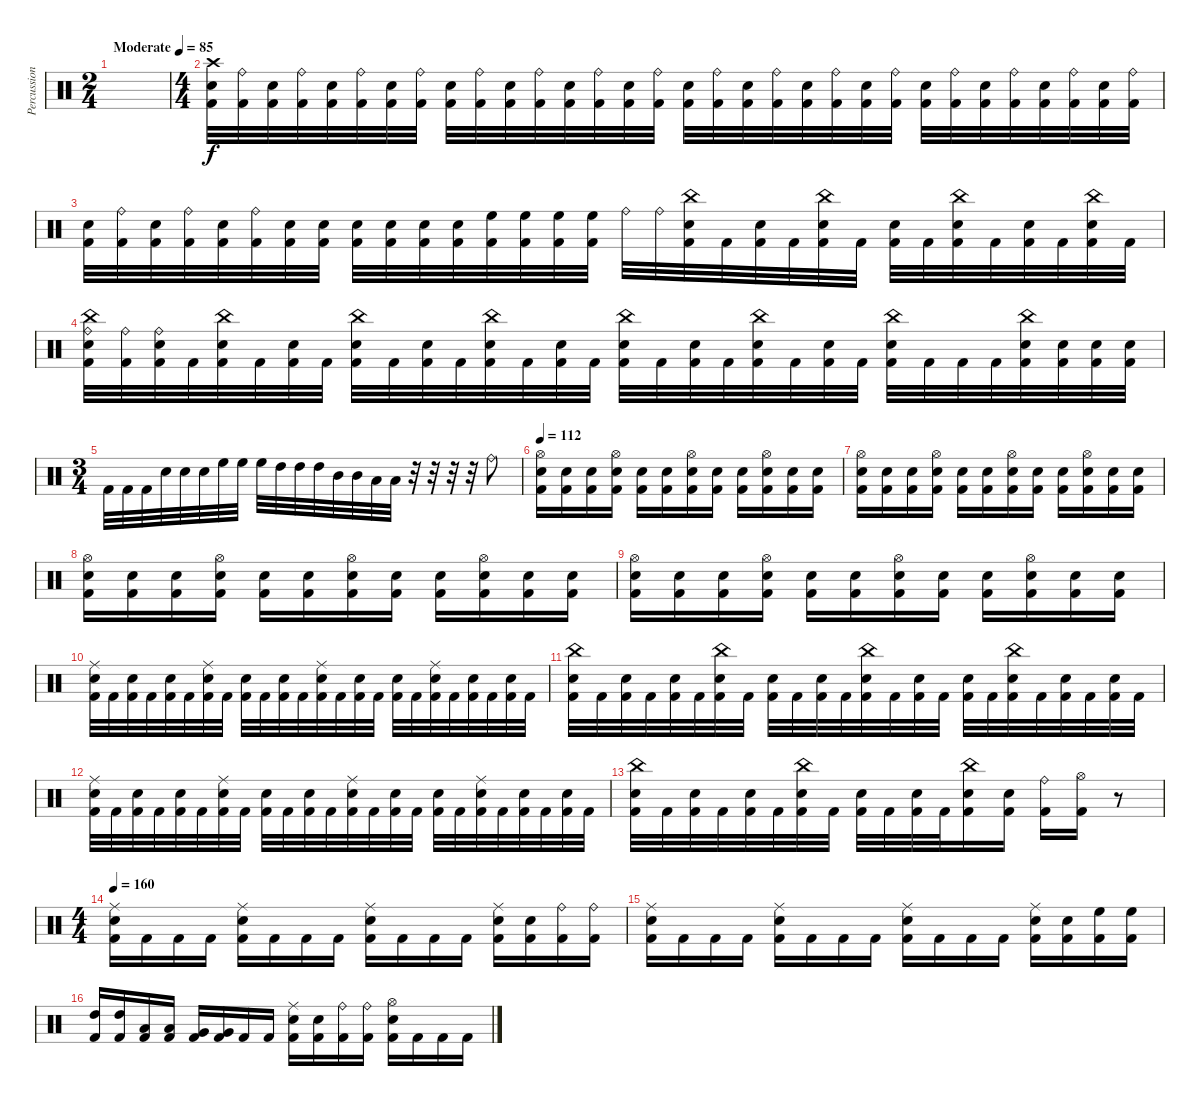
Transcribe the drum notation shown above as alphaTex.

\track ("Percussion" "Percussion") {instrument percussion}
\staff {score}
\articulation defaults
\ts (2 4)
\tempo (85 "Moderate")
\clef neutral
\ks c
|
\ts (4 4)
("Crash high (hit)" "Snare (hit) 2" "Kick (hit) 2").32 ("Ride (bell)" "Kick (hit) 2").32 ("Snare (hit) 2" "Kick (hit) 2").32 ("Ride (bell)" "Kick (hit) 2").32 ("Snare (hit) 2" "Kick (hit) 2").32 ("Ride (bell)" "Kick (hit) 2").32 ("Snare (hit) 2" "Kick (hit) 2").32 ("Ride (bell)" "Kick (hit) 2").32 ("Snare (hit) 2" "Kick (hit) 2").32 ("Ride (bell)" "Kick (hit) 2").32 ("Snare (hit) 2" "Kick (hit) 2").32 ("Ride (bell)" "Kick (hit) 2").32 ("Snare (hit) 2" "Kick (hit) 2").32 ("Ride (bell)" "Kick (hit) 2").32 ("Snare (hit) 2" "Kick (hit) 2").32 ("Ride (bell)" "Kick (hit) 2").32 ("Snare (hit) 2" "Kick (hit) 2").32 ("Ride (bell)" "Kick (hit) 2").32 ("Snare (hit) 2" "Kick (hit) 2").32 ("Ride (bell)" "Kick (hit) 2").32 ("Snare (hit) 2" "Kick (hit) 2").32 ("Ride (bell)" "Kick (hit) 2").32 ("Snare (hit) 2" "Kick (hit) 2").32 ("Ride (bell)" "Kick (hit) 2").32 ("Snare (hit) 2" "Kick (hit) 2").32 ("Ride (bell)" "Kick (hit) 2").32 ("Snare (hit) 2" "Kick (hit) 2").32 ("Ride (bell)" "Kick (hit) 2").32 ("Snare (hit) 2" "Kick (hit) 2").32 ("Ride (bell)" "Kick (hit) 2").32 ("Snare (hit) 2" "Kick (hit) 2").32 ("Ride (bell)" "Kick (hit) 2").32 |
("Snare (hit) 2" "Kick (hit) 2").32 ("Ride (bell)" "Kick (hit) 2").32 ("Snare (hit) 2" "Kick (hit) 2").32 ("Ride (bell)" "Kick (hit) 2").32 ("Snare (hit) 2" "Kick (hit) 2").32 ("Ride (bell)" "Kick (hit) 2").32 ("Snare (hit) 2" "Kick (hit) 2").32 ("Snare (hit) 2" "Kick (hit) 2").32 ("Snare (hit) 2" "Kick (hit) 2").32 ("Snare (hit) 2" "Kick (hit) 2").32 ("Snare (hit) 2" "Kick (hit) 2").32 ("Snare (hit) 2" "Kick (hit) 2").32 ("High Floor Tom (hit)" "Kick (hit) 2").32 ("High Floor Tom (hit)" "Kick (hit) 2").32 ("High Floor Tom (hit)" "Kick (hit) 2").32 ("High Floor Tom (hit)" "Kick (hit) 2").32 "Ride (bell)".32 "Ride (bell)".32 ("China (hit)" "Snare (hit) 2" "Kick (hit) 2").32 "Kick (hit) 2".32 ("Snare (hit) 2" "Kick (hit) 2").32 "Kick (hit) 2".32 ("China (hit)" "Snare (hit) 2" "Kick (hit) 2").32 "Kick (hit) 2".32 ("Snare (hit) 2" "Kick (hit) 2").32 "Kick (hit) 2".32 ("China (hit)" "Snare (hit) 2" "Kick (hit) 2").32 "Kick (hit) 2".32 ("Snare (hit) 2" "Kick (hit) 2").32 "Kick (hit) 2".32 ("China (hit)" "Snare (hit) 2" "Kick (hit) 2").32 "Kick (hit) 2".32 |
("China (hit)" "Ride (bell)" "Snare (hit) 2" "Kick (hit) 2").32 ("Ride (bell)" "Kick (hit) 2").32 ("Ride (bell)" "Snare (hit) 2" "Kick (hit) 2").32 "Kick (hit) 2".32 ("China (hit)" "Snare (hit) 2" "Kick (hit) 2").32 "Kick (hit) 2".32 ("Snare (hit) 2" "Kick (hit) 2").32 "Kick (hit) 2".32 ("China (hit)" "Snare (hit) 2" "Kick (hit) 2").32 "Kick (hit) 2".32 ("Snare (hit) 2" "Kick (hit) 2").32 "Kick (hit) 2".32 ("China (hit)" "Snare (hit) 2" "Kick (hit) 2").32 "Kick (hit) 2".32 ("Snare (hit) 2" "Kick (hit) 2").32 "Kick (hit) 2".32 ("China (hit)" "Snare (hit) 2" "Kick (hit) 2").32 "Kick (hit) 2".32 ("Snare (hit) 2" "Kick (hit) 2").32 "Kick (hit) 2".32 ("China (hit)" "Snare (hit) 2" "Kick (hit) 2").32 "Kick (hit) 2".32 ("Snare (hit) 2" "Kick (hit) 2").32 "Kick (hit) 2".32 ("China (hit)" "Snare (hit) 2" "Kick (hit) 2").32 "Kick (hit) 2".32 "Kick (hit) 2".32 "Kick (hit) 2".32 ("China (hit)" "Snare (hit) 2" "Kick (hit) 2").32 ("Snare (hit) 2" "Kick (hit) 2").32 ("Snare (hit) 2" "Kick (hit) 2").32 ("Snare (hit) 2" "Kick (hit) 2").32 |
\ts (3 4)
"Kick (hit) 2".32 "Kick (hit) 2".32 "Kick (hit) 2".32 "Snare (hit) 2".32 "Snare (hit) 2".32 "Snare (hit) 2".32 "High Floor Tom (hit)".32 "High Floor Tom (hit)".32 "High Floor Tom (hit)".32 "High Tom (hit)".32 "High Tom (hit)".32 "High Tom (hit)".32 "Mid Tom (hit)".32 "Mid Tom (hit)".32 "Low Tom (hit)".32 "Low Tom (hit)".32 r.32 r.32 r.32 r.32 "Ride (bell)".8 |
\tempo 112
("Hi-Hat (open)" "Snare (hit) 2" "Kick (hit) 2").16 ("Snare (hit) 2" "Kick (hit) 2").16 ("Snare (hit) 2" "Kick (hit) 2").16 ("Hi-Hat (open)" "Snare (hit) 2" "Kick (hit) 2").16 ("Snare (hit) 2" "Kick (hit) 2").16 ("Snare (hit) 2" "Kick (hit) 2").16 ("Hi-Hat (open)" "Snare (hit) 2" "Kick (hit) 2").16 ("Snare (hit) 2" "Kick (hit) 2").16 ("Snare (hit) 2" "Kick (hit) 2").16 ("Hi-Hat (open)" "Snare (hit) 2" "Kick (hit) 2").16 ("Snare (hit) 2" "Kick (hit) 2").16 ("Snare (hit) 2" "Kick (hit) 2").16 |
("Hi-Hat (open)" "Snare (hit) 2" "Kick (hit) 2").16 ("Snare (hit) 2" "Kick (hit) 2").16 ("Snare (hit) 2" "Kick (hit) 2").16 ("Hi-Hat (open)" "Snare (hit) 2" "Kick (hit) 2").16 ("Snare (hit) 2" "Kick (hit) 2").16 ("Snare (hit) 2" "Kick (hit) 2").16 ("Hi-Hat (open)" "Snare (hit) 2" "Kick (hit) 2").16 ("Snare (hit) 2" "Kick (hit) 2").16 ("Snare (hit) 2" "Kick (hit) 2").16 ("Hi-Hat (open)" "Snare (hit) 2" "Kick (hit) 2").16 ("Snare (hit) 2" "Kick (hit) 2").16 ("Snare (hit) 2" "Kick (hit) 2").16 |
("Hi-Hat (open)" "Snare (hit) 2" "Kick (hit) 2").16 ("Snare (hit) 2" "Kick (hit) 2").16 ("Snare (hit) 2" "Kick (hit) 2").16 ("Hi-Hat (open)" "Snare (hit) 2" "Kick (hit) 2").16 ("Snare (hit) 2" "Kick (hit) 2").16 ("Snare (hit) 2" "Kick (hit) 2").16 ("Hi-Hat (open)" "Snare (hit) 2" "Kick (hit) 2").16 ("Snare (hit) 2" "Kick (hit) 2").16 ("Snare (hit) 2" "Kick (hit) 2").16 ("Hi-Hat (open)" "Snare (hit) 2" "Kick (hit) 2").16 ("Snare (hit) 2" "Kick (hit) 2").16 ("Snare (hit) 2" "Kick (hit) 2").16 |
("Hi-Hat (open)" "Snare (hit) 2" "Kick (hit) 2").16 ("Snare (hit) 2" "Kick (hit) 2").16 ("Snare (hit) 2" "Kick (hit) 2").16 ("Hi-Hat (open)" "Snare (hit) 2" "Kick (hit) 2").16 ("Snare (hit) 2" "Kick (hit) 2").16 ("Snare (hit) 2" "Kick (hit) 2").16 ("Hi-Hat (open)" "Snare (hit) 2" "Kick (hit) 2").16 ("Snare (hit) 2" "Kick (hit) 2").16 ("Snare (hit) 2" "Kick (hit) 2").16 ("Hi-Hat (open)" "Snare (hit) 2" "Kick (hit) 2").16 ("Snare (hit) 2" "Kick (hit) 2").16 ("Snare (hit) 2" "Kick (hit) 2").16 |
("Ride (middle)" "Snare (hit) 2" "Kick (hit) 2").32 "Kick (hit) 2".32 ("Snare (hit) 2" "Kick (hit) 2").32 "Kick (hit) 2".32 ("Snare (hit) 2" "Kick (hit) 2").32 "Kick (hit) 2".32 ("Ride (middle)" "Snare (hit) 2" "Kick (hit) 2").32 "Kick (hit) 2".32 ("Snare (hit) 2" "Kick (hit) 2").32 "Kick (hit) 2".32 ("Snare (hit) 2" "Kick (hit) 2").32 "Kick (hit) 2".32 ("Ride (middle)" "Snare (hit) 2" "Kick (hit) 2").32 "Kick (hit) 2".32 ("Snare (hit) 2" "Kick (hit) 2").32 "Kick (hit) 2".32 ("Snare (hit) 2" "Kick (hit) 2").32 "Kick (hit) 2".32 ("Ride (middle)" "Snare (hit) 2" "Kick (hit) 2").32 "Kick (hit) 2".32 ("Snare (hit) 2" "Kick (hit) 2").32 "Kick (hit) 2".32 ("Snare (hit) 2" "Kick (hit) 2").32 "Kick (hit) 2".32 |
("China (hit)" "Snare (hit) 2" "Kick (hit) 2").32 "Kick (hit) 2".32 ("Snare (hit) 2" "Kick (hit) 2").32 "Kick (hit) 2".32 ("Snare (hit) 2" "Kick (hit) 2").32 "Kick (hit) 2".32 ("China (hit)" "Snare (hit) 2" "Kick (hit) 2").32 "Kick (hit) 2".32 ("Snare (hit) 2" "Kick (hit) 2").32 "Kick (hit) 2".32 ("Snare (hit) 2" "Kick (hit) 2").32 "Kick (hit) 2".32 ("China (hit)" "Snare (hit) 2" "Kick (hit) 2").32 "Kick (hit) 2".32 ("Snare (hit) 2" "Kick (hit) 2").32 "Kick (hit) 2".32 ("Snare (hit) 2" "Kick (hit) 2").32 "Kick (hit) 2".32 ("China (hit)" "Snare (hit) 2" "Kick (hit) 2").32 "Kick (hit) 2".32 ("Snare (hit) 2" "Kick (hit) 2").32 "Kick (hit) 2".32 ("Snare (hit) 2" "Kick (hit) 2").32 "Kick (hit) 2".32 |
("Ride (middle)" "Snare (hit) 2" "Kick (hit) 2").32 "Kick (hit) 2".32 ("Snare (hit) 2" "Kick (hit) 2").32 "Kick (hit) 2".32 ("Snare (hit) 2" "Kick (hit) 2").32 "Kick (hit) 2".32 ("Ride (middle)" "Snare (hit) 2" "Kick (hit) 2").32 "Kick (hit) 2".32 ("Snare (hit) 2" "Kick (hit) 2").32 "Kick (hit) 2".32 ("Snare (hit) 2" "Kick (hit) 2").32 "Kick (hit) 2".32 ("Ride (middle)" "Snare (hit) 2" "Kick (hit) 2").32 "Kick (hit) 2".32 ("Snare (hit) 2" "Kick (hit) 2").32 "Kick (hit) 2".32 ("Snare (hit) 2" "Kick (hit) 2").32 "Kick (hit) 2".32 ("Ride (middle)" "Snare (hit) 2" "Kick (hit) 2").32 "Kick (hit) 2".32 ("Snare (hit) 2" "Kick (hit) 2").32 "Kick (hit) 2".32 ("Snare (hit) 2" "Kick (hit) 2").32 "Kick (hit) 2".32 |
("China (hit)" "Snare (hit) 2" "Kick (hit) 2").32 "Kick (hit) 2".32 ("Snare (hit) 2" "Kick (hit) 2").32 "Kick (hit) 2".32 ("Snare (hit) 2" "Kick (hit) 2").32 "Kick (hit) 2".32 ("China (hit)" "Snare (hit) 2" "Kick (hit) 2").32 "Kick (hit) 2".32 ("Snare (hit) 2" "Kick (hit) 2").32 "Kick (hit) 2".32 ("Snare (hit) 2" "Kick (hit) 2").32 "Kick (hit) 2".32 ("China (hit)" "Snare (hit) 2" "Kick (hit) 2").16 ("Snare (hit) 2" "Kick (hit) 2").16 ("Ride (bell)" "Kick (hit) 2").16 ("Hi-Hat (open)" "Kick (hit) 2").16 r.8 |
\ts (4 4)
\tempo 160
("Ride (middle)" "Snare (hit) 2" "Kick (hit) 2").16 "Kick (hit) 2".16 "Kick (hit) 2".16 "Kick (hit) 2".16 ("Ride (middle)" "Snare (hit) 2" "Kick (hit) 2").16 "Kick (hit) 2".16 "Kick (hit) 2".16 "Kick (hit) 2".16 ("Ride (middle)" "Snare (hit) 2" "Kick (hit) 2").16 "Kick (hit) 2".16 "Kick (hit) 2".16 "Kick (hit) 2".16 ("Ride (middle)" "Snare (hit) 2" "Kick (hit) 2").16 ("Snare (hit) 2" "Kick (hit) 2").16 ("Ride (bell)" "Kick (hit) 2").16 ("Ride (bell)" "Kick (hit) 2").16 |
("Ride (middle)" "Snare (hit) 2" "Kick (hit) 2").16 "Kick (hit) 2".16 "Kick (hit) 2".16 "Kick (hit) 2".16 ("Ride (middle)" "Snare (hit) 2" "Kick (hit) 2").16 "Kick (hit) 2".16 "Kick (hit) 2".16 "Kick (hit) 2".16 ("Ride (middle)" "Snare (hit) 2" "Kick (hit) 2").16 "Kick (hit) 2".16 "Kick (hit) 2".16 "Kick (hit) 2".16 ("Ride (middle)" "Snare (hit) 2" "Kick (hit) 2").16 ("Snare (hit) 2" "Kick (hit) 2").16 ("High Floor Tom (hit)" "Kick (hit) 2").16 ("High Floor Tom (hit)" "Kick (hit) 2").16 |
("High Tom (hit)" "Kick (hit) 2").16 ("High Tom (hit)" "Kick (hit) 2").16 ("Low Tom (hit)" "Kick (hit) 2").16 ("Low Tom (hit)" "Kick (hit) 2").16 ("Very Low Tom (hit)" "Kick (hit) 2").16 ("Very Low Tom (hit)" "Kick (hit) 2").16 "Kick (hit) 2".16 "Kick (hit) 2".16 ("Ride (middle)" "Snare (hit) 2" "Kick (hit) 2").16 ("Snare (hit) 2" "Kick (hit) 2").16 ("Ride (bell)" "Kick (hit) 2").16 ("Ride (bell)" "Kick (hit) 2").16 ("Hi-Hat (open)" "Snare (hit) 2" "Kick (hit) 2").16 "Kick (hit) 2".16 "Kick (hit) 2".16 "Kick (hit) 2".16
